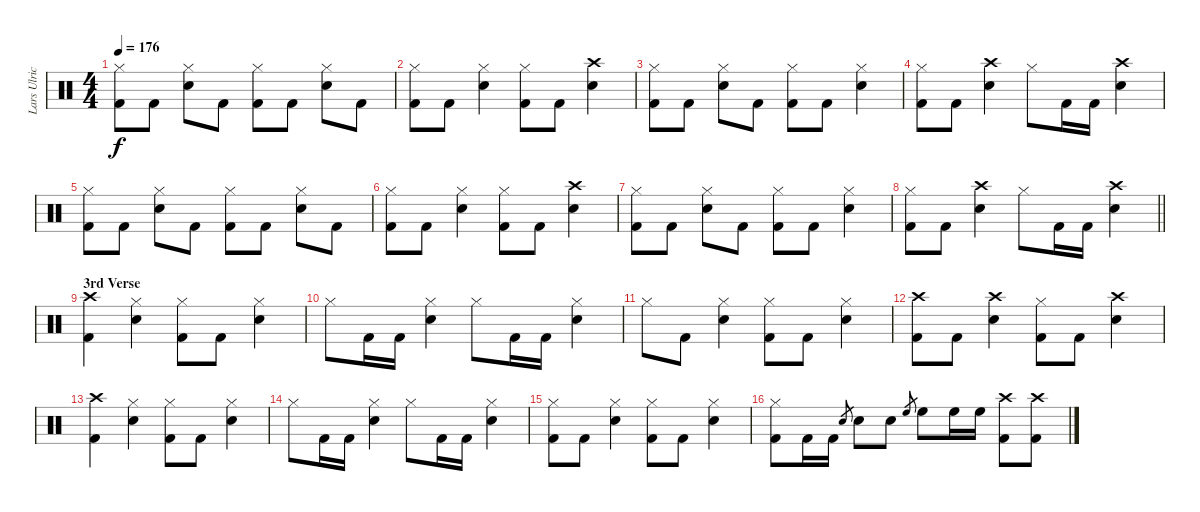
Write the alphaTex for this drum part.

\track ("Lars Ulrich" "Lars Ulric") {instrument percussion}
\staff {score}
\articulation defaults
\ts (4 4)
\tempo 176
\clef neutral
\ks c
("Hi-Hat (closed)" "Kick (hit) 2").8{dy f} "Kick (hit) 2".8 ("Hi-Hat (closed)" "Snare (hit) 2").8 "Kick (hit) 2".8 ("Hi-Hat (closed)" "Kick (hit) 2").8 "Kick (hit) 2".8 ("Hi-Hat (closed)" "Snare (hit) 2").8 "Kick (hit) 2".8 |
("Hi-Hat (closed)" "Kick (hit) 2").8 "Kick (hit) 2".8 ("Hi-Hat (closed)" "Snare (hit) 2").4 ("Hi-Hat (closed)" "Kick (hit) 2").8 "Kick (hit) 2".8 ("Crash high (hit)" "Snare (hit) 2").4 |
("Hi-Hat (closed)" "Kick (hit) 2").8 "Kick (hit) 2".8 ("Hi-Hat (closed)" "Snare (hit) 2").8 "Kick (hit) 2".8 ("Hi-Hat (closed)" "Kick (hit) 2").8 "Kick (hit) 2".8 ("Hi-Hat (closed)" "Snare (hit) 2").4 |
("Hi-Hat (closed)" "Kick (hit) 2").8 "Kick (hit) 2".8 ("Crash high (hit)" "Snare (hit) 2").4 "Hi-Hat (closed)".8 "Kick (hit) 2".16 "Kick (hit) 2".16 ("Crash high (hit)" "Snare (hit) 2").4 |
("Hi-Hat (closed)" "Kick (hit) 2").8 "Kick (hit) 2".8 ("Hi-Hat (closed)" "Snare (hit) 2").8 "Kick (hit) 2".8 ("Hi-Hat (closed)" "Kick (hit) 2").8 "Kick (hit) 2".8 ("Hi-Hat (closed)" "Snare (hit) 2").8 "Kick (hit) 2".8 |
("Hi-Hat (closed)" "Kick (hit) 2").8 "Kick (hit) 2".8 ("Hi-Hat (closed)" "Snare (hit) 2").4 ("Hi-Hat (closed)" "Kick (hit) 2").8 "Kick (hit) 2".8 ("Crash high (hit)" "Snare (hit) 2").4 |
("Hi-Hat (closed)" "Kick (hit) 2").8 "Kick (hit) 2".8 ("Hi-Hat (closed)" "Snare (hit) 2").8 "Kick (hit) 2".8 ("Hi-Hat (closed)" "Kick (hit) 2").8 "Kick (hit) 2".8 ("Hi-Hat (closed)" "Snare (hit) 2").4 |
\barLineRight lightlight
("Hi-Hat (closed)" "Kick (hit) 2").8 "Kick (hit) 2".8 ("Crash high (hit)" "Snare (hit) 2").4 "Hi-Hat (closed)".8 "Kick (hit) 2".16 "Kick (hit) 2".16 ("Crash high (hit)" "Snare (hit) 2").4 |
\section ("" "3rd Verse")
("Crash high (hit)" "Kick (hit) 2").4 ("Hi-Hat (closed)" "Snare (hit) 2").4 ("Hi-Hat (closed)" "Kick (hit) 2").8 "Kick (hit) 2".8 ("Hi-Hat (closed)" "Snare (hit) 2").4 |
"Hi-Hat (closed)".8 "Kick (hit) 2".16 "Kick (hit) 2".16 ("Hi-Hat (closed)" "Snare (hit) 2").4 "Hi-Hat (closed)".8 "Kick (hit) 2".16 "Kick (hit) 2".16 ("Hi-Hat (closed)" "Snare (hit) 2").4 |
"Hi-Hat (closed)".8 "Kick (hit) 2".8 ("Hi-Hat (closed)" "Snare (hit) 2").4 ("Hi-Hat (closed)" "Kick (hit) 2").8 "Kick (hit) 2".8 ("Hi-Hat (closed)" "Snare (hit) 2").4 |
("Crash high (hit)" "Kick (hit) 2").8 "Kick (hit) 2".8 ("Crash high (hit)" "Snare (hit) 2").4 ("Hi-Hat (closed)" "Kick (hit) 2").8 "Kick (hit) 2".8 ("Crash high (hit)" "Snare (hit) 2").4 |
("Crash high (hit)" "Kick (hit) 2").4 ("Hi-Hat (closed)" "Snare (hit) 2").4 ("Hi-Hat (closed)" "Kick (hit) 2").8 "Kick (hit) 2".8 ("Hi-Hat (closed)" "Snare (hit) 2").4 |
"Hi-Hat (closed)".8 "Kick (hit) 2".16 "Kick (hit) 2".16 ("Hi-Hat (closed)" "Snare (hit) 2").4 "Hi-Hat (closed)".8 "Kick (hit) 2".16 "Kick (hit) 2".16 ("Hi-Hat (closed)" "Snare (hit) 2").4 |
("Hi-Hat (closed)" "Kick (hit) 2").8 "Kick (hit) 2".8 ("Hi-Hat (closed)" "Snare (hit) 2").4 ("Hi-Hat (closed)" "Kick (hit) 2").8 "Kick (hit) 2".8 ("Hi-Hat (closed)" "Snare (hit) 2").4 |
("Hi-Hat (closed)" "Kick (hit) 2").8 "Kick (hit) 2".16 "Kick (hit) 2".16 "Snare (hit) 2".8{gr} "Snare (hit) 2".8 "Snare (hit) 2".8 "High Floor Tom (hit)".8{gr} "High Floor Tom (hit)".8 "High Floor Tom (hit)".16 "High Floor Tom (hit)".16 ("Crash high (hit)" "Kick (hit) 2").8 ("Crash high (hit)" "Kick (hit) 2").8
